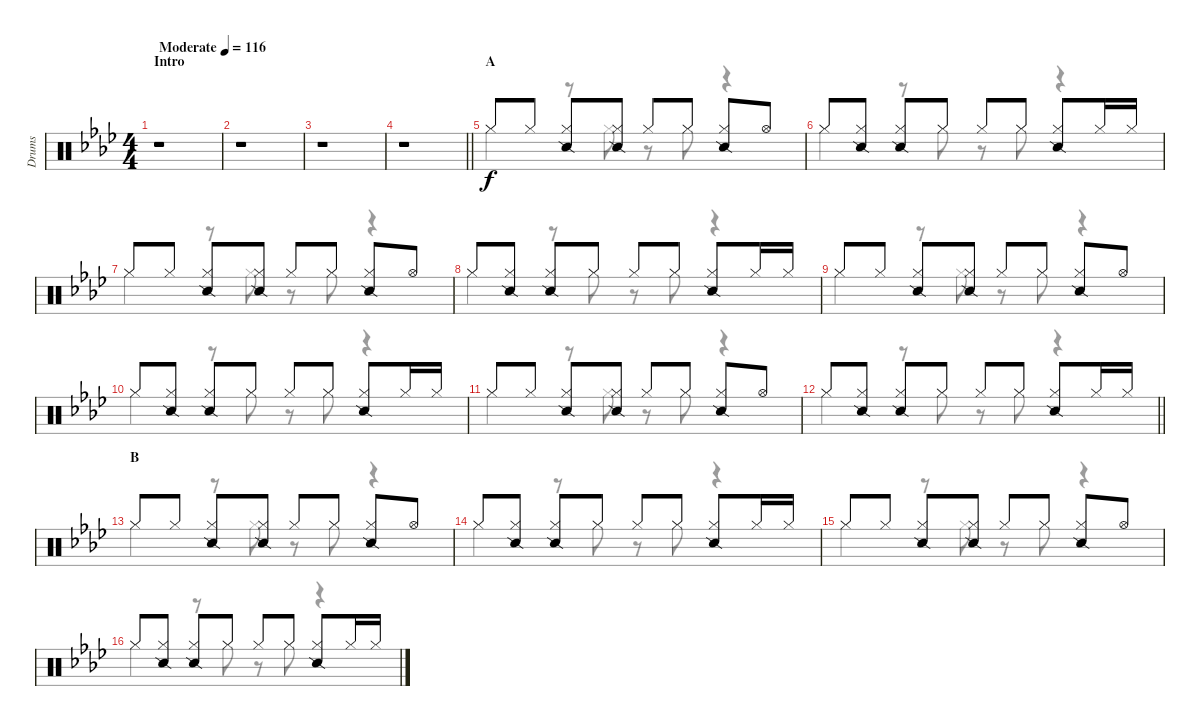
\track ("Drums" "Drums") {instrument percussion}
\staff {score}
\articulation defaults
\voice
\ts (4 4)
\section ("" "Intro")
\tempo (116 "Moderate")
\clef neutral
\ks ab
r.1{dy f} |
r.1 |
r.1 |
\barLineRight lightlight
r.1 |
\section ("" "A")
"Hi-Hat (closed)".8 "Hi-Hat (closed)".8 ("Hi-Hat (closed)" "Snare (side stick) 2").8 ("Hi-Hat (closed)" "Snare (side stick) 2").8 "Hi-Hat (closed)".8 "Hi-Hat (closed)".8 ("Hi-Hat (closed)" "Snare (side stick) 2").8 "Hi-Hat (open)".8 |
"Hi-Hat (closed)".8 ("Hi-Hat (closed)" "Snare (side stick) 2").8 ("Hi-Hat (closed)" "Snare (side stick) 2").8 "Hi-Hat (closed)".8 "Hi-Hat (closed)".8 "Hi-Hat (closed)".8 ("Hi-Hat (closed)" "Snare (side stick) 2").8 "Hi-Hat (closed)".16 "Hi-Hat (closed)".16 |
"Hi-Hat (closed)".8 "Hi-Hat (closed)".8 ("Hi-Hat (closed)" "Snare (side stick) 2").8 ("Hi-Hat (closed)" "Snare (side stick) 2").8 "Hi-Hat (closed)".8 "Hi-Hat (closed)".8 ("Hi-Hat (closed)" "Snare (side stick) 2").8 "Hi-Hat (open)".8 |
"Hi-Hat (closed)".8 ("Hi-Hat (closed)" "Snare (side stick) 2").8 ("Hi-Hat (closed)" "Snare (side stick) 2").8 "Hi-Hat (closed)".8 "Hi-Hat (closed)".8 "Hi-Hat (closed)".8 ("Hi-Hat (closed)" "Snare (side stick) 2").8 "Hi-Hat (closed)".16 "Hi-Hat (closed)".16 |
"Hi-Hat (closed)".8 "Hi-Hat (closed)".8 ("Hi-Hat (closed)" "Snare (side stick) 2").8 ("Hi-Hat (closed)" "Snare (side stick) 2").8 "Hi-Hat (closed)".8 "Hi-Hat (closed)".8 ("Hi-Hat (closed)" "Snare (side stick) 2").8 "Hi-Hat (open)".8 |
"Hi-Hat (closed)".8 ("Hi-Hat (closed)" "Snare (side stick) 2").8 ("Hi-Hat (closed)" "Snare (side stick) 2").8 "Hi-Hat (closed)".8 "Hi-Hat (closed)".8 "Hi-Hat (closed)".8 ("Hi-Hat (closed)" "Snare (side stick) 2").8 "Hi-Hat (closed)".16 "Hi-Hat (closed)".16 |
"Hi-Hat (closed)".8 "Hi-Hat (closed)".8 ("Hi-Hat (closed)" "Snare (side stick) 2").8 ("Hi-Hat (closed)" "Snare (side stick) 2").8 "Hi-Hat (closed)".8 "Hi-Hat (closed)".8 ("Hi-Hat (closed)" "Snare (side stick) 2").8 "Hi-Hat (open)".8 |
\barLineRight lightlight "Hi-Hat (closed)".8
("Hi-Hat (closed)" "Snare (side stick) 2").8 ("Hi-Hat (closed)" "Snare (side stick) 2").8 "Hi-Hat (closed)".8 "Hi-Hat (closed)".8 "Hi-Hat (closed)".8 ("Hi-Hat (closed)" "Snare (side stick) 2").8 "Hi-Hat (closed)".16 "Hi-Hat (closed)".16 |
\section ("" "B")
"Hi-Hat (closed)".8 "Hi-Hat (closed)".8 ("Hi-Hat (closed)" "Snare (side stick) 2").8 ("Hi-Hat (closed)" "Snare (side stick) 2").8 "Hi-Hat (closed)".8 "Hi-Hat (closed)".8 ("Hi-Hat (closed)" "Snare (side stick) 2").8 "Hi-Hat (open)".8 |
"Hi-Hat (closed)".8 ("Hi-Hat (closed)" "Snare (side stick) 2").8 ("Hi-Hat (closed)" "Snare (side stick) 2").8 "Hi-Hat (closed)".8 "Hi-Hat (closed)".8 "Hi-Hat (closed)".8 ("Hi-Hat (closed)" "Snare (side stick) 2").8 "Hi-Hat (closed)".16 "Hi-Hat (closed)".16 |
"Hi-Hat (closed)".8 "Hi-Hat (closed)".8 ("Hi-Hat (closed)" "Snare (side stick) 2").8 ("Hi-Hat (closed)" "Snare (side stick) 2").8 "Hi-Hat (closed)".8 "Hi-Hat (closed)".8 ("Hi-Hat (closed)" "Snare (side stick) 2").8 "Hi-Hat (open)".8 |
"Hi-Hat (closed)".8 ("Hi-Hat (closed)" "Snare (side stick) 2").8 ("Hi-Hat (closed)" "Snare (side stick) 2").8 "Hi-Hat (closed)".8 "Hi-Hat (closed)".8 "Hi-Hat (closed)".8 ("Hi-Hat (closed)" "Snare (side stick) 2").8 "Hi-Hat (closed)".16 "Hi-Hat (closed)".16
\voice
\clef neutral
\ottava regular
\simile none
\ks ab
r.1{dy f} |
r.1 |
r.1 |
\barLineRight lightlight
r.1 |
"Hi-Hat (closed)".4 r.8 "Hi-Hat (closed)".8 r.8 "Hi-Hat (closed)".8 r.4 |
"Hi-Hat (closed)".4 r.8 "Hi-Hat (closed)".8 r.8 "Hi-Hat (closed)".8 r.4 |
"Hi-Hat (closed)".4 r.8 "Hi-Hat (closed)".8 r.8 "Hi-Hat (closed)".8 r.4 |
"Hi-Hat (closed)".4 r.8 "Hi-Hat (closed)".8 r.8 "Hi-Hat (closed)".8 r.4 |
"Hi-Hat (closed)".4 r.8 "Hi-Hat (closed)".8 r.8 "Hi-Hat (closed)".8 r.4 |
"Hi-Hat (closed)".4 r.8 "Hi-Hat (closed)".8 r.8 "Hi-Hat (closed)".8 r.4 |
"Hi-Hat (closed)".4 r.8 "Hi-Hat (closed)".8 r.8 "Hi-Hat (closed)".8 r.4 |
\barLineRight lightlight "Hi-Hat (closed)".4
r.8 "Hi-Hat (closed)".8 r.8 "Hi-Hat (closed)".8 r.4 |
"Hi-Hat (closed)".4 r.8 "Hi-Hat (closed)".8 r.8 "Hi-Hat (closed)".8 r.4 |
"Hi-Hat (closed)".4 r.8 "Hi-Hat (closed)".8 r.8 "Hi-Hat (closed)".8 r.4 |
"Hi-Hat (closed)".4 r.8 "Hi-Hat (closed)".8 r.8 "Hi-Hat (closed)".8 r.4 |
"Hi-Hat (closed)".4 r.8 "Hi-Hat (closed)".8 r.8 "Hi-Hat (closed)".8 r.4
